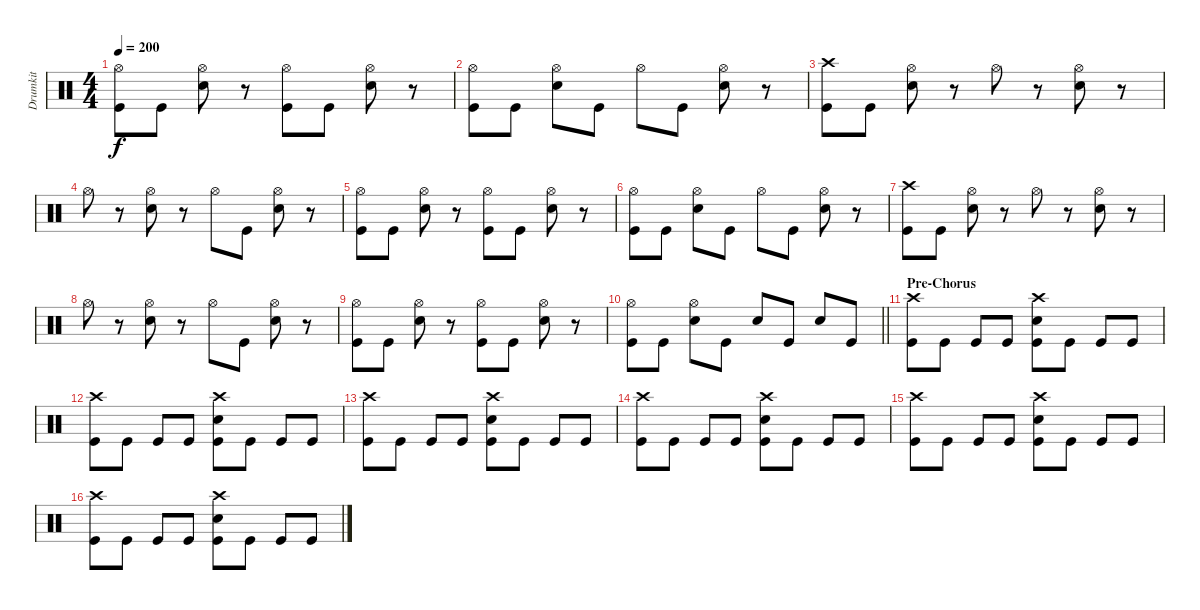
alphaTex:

\track ("Drumkit" "Drumkit") {instrument percussion}
\staff {score}
\articulation defaults
\ts (4 4)
\tempo 200
\clef neutral
\ks c
("Hi-Hat (open)" "Kick (hit)").8{dy f} "Kick (hit)".8 ("Snare (hit) 2" "Hi-Hat (open)").8 r.8 ("Kick (hit)" "Hi-Hat (open)").8 "Kick (hit)".8 ("Snare (hit) 2" "Hi-Hat (open)").8 r.8 |
("Kick (hit)" "Hi-Hat (open)").8 "Kick (hit)".8 ("Snare (hit) 2" "Hi-Hat (open)").8 "Kick (hit)".8 "Hi-Hat (open)".8 "Kick (hit)".8 ("Snare (hit) 2" "Hi-Hat (open)").8 r.8 |
("Crash high (hit)" "Kick (hit)").8 "Kick (hit)".8 ("Snare (hit) 2" "Hi-Hat (open)").8 r.8 "Hi-Hat (open)".8 r.8 ("Snare (hit) 2" "Hi-Hat (open)").8 r.8 |
"Hi-Hat (open)".8 r.8 ("Snare (hit) 2" "Hi-Hat (open)").8 r.8 "Hi-Hat (open)".8 "Kick (hit)".8 ("Snare (hit) 2" "Hi-Hat (open)").8 r.8 |
("Hi-Hat (open)" "Kick (hit)").8 "Kick (hit)".8 ("Snare (hit) 2" "Hi-Hat (open)").8 r.8 ("Kick (hit)" "Hi-Hat (open)").8 "Kick (hit)".8 ("Snare (hit) 2" "Hi-Hat (open)").8 r.8 |
("Kick (hit)" "Hi-Hat (open)").8 "Kick (hit)".8 ("Snare (hit) 2" "Hi-Hat (open)").8 "Kick (hit)".8 "Hi-Hat (open)".8 "Kick (hit)".8 ("Snare (hit) 2" "Hi-Hat (open)").8 r.8 |
("Crash high (hit)" "Kick (hit)").8 "Kick (hit)".8 ("Snare (hit) 2" "Hi-Hat (open)").8 r.8 "Hi-Hat (open)".8 r.8 ("Snare (hit) 2" "Hi-Hat (open)").8 r.8 |
"Hi-Hat (open)".8 r.8 ("Snare (hit) 2" "Hi-Hat (open)").8 r.8 "Hi-Hat (open)".8 "Kick (hit)".8 ("Snare (hit) 2" "Hi-Hat (open)").8 r.8 |
("Hi-Hat (open)" "Kick (hit)").8 "Kick (hit)".8 ("Snare (hit) 2" "Hi-Hat (open)").8 r.8 ("Kick (hit)" "Hi-Hat (open)").8 "Kick (hit)".8 ("Snare (hit) 2" "Hi-Hat (open)").8 r.8 |
\barLineRight lightlight
("Kick (hit)" "Hi-Hat (open)").8 "Kick (hit)".8 ("Snare (hit) 2" "Hi-Hat (open)").8 "Kick (hit)".8 "Snare (hit) 2".8 "Kick (hit)".8 "Snare (hit) 2".8 "Kick (hit)".8 |
\section ("" "Pre-Chorus")
("Kick (hit)" "Crash high (hit)").8 "Kick (hit)".8 "Kick (hit)".8 "Kick (hit)".8 ("Kick (hit)" "Snare (hit) 2" "Crash high (hit)").8 "Kick (hit)".8 "Kick (hit)".8 "Kick (hit)".8 |
("Kick (hit)" "Crash high (hit)").8 "Kick (hit)".8 "Kick (hit)".8 "Kick (hit)".8 ("Kick (hit)" "Snare (hit) 2" "Crash high (hit)").8 "Kick (hit)".8 "Kick (hit)".8 "Kick (hit)".8 |
("Kick (hit)" "Crash high (hit)").8 "Kick (hit)".8 "Kick (hit)".8 "Kick (hit)".8 ("Kick (hit)" "Snare (hit) 2" "Crash high (hit)").8 "Kick (hit)".8 "Kick (hit)".8 "Kick (hit)".8 |
("Kick (hit)" "Crash high (hit)").8 "Kick (hit)".8 "Kick (hit)".8 "Kick (hit)".8 ("Kick (hit)" "Snare (hit) 2" "Crash high (hit)").8 "Kick (hit)".8 "Kick (hit)".8 "Kick (hit)".8 |
("Kick (hit)" "Crash high (hit)").8 "Kick (hit)".8 "Kick (hit)".8 "Kick (hit)".8 ("Kick (hit)" "Snare (hit) 2" "Crash high (hit)").8 "Kick (hit)".8 "Kick (hit)".8 "Kick (hit)".8 |
("Kick (hit)" "Crash high (hit)").8 "Kick (hit)".8 "Kick (hit)".8 "Kick (hit)".8 ("Kick (hit)" "Snare (hit) 2" "Crash high (hit)").8 "Kick (hit)".8 "Kick (hit)".8 "Kick (hit)".8
